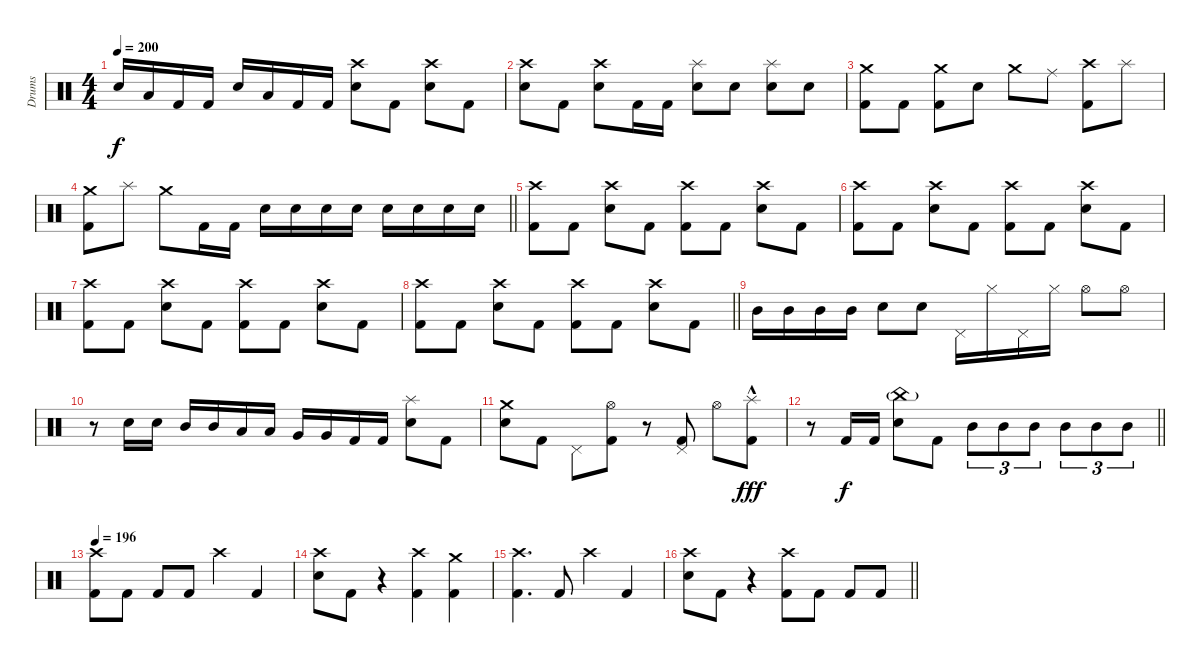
\track ("Drums" "Drums") {instrument percussion}
\staff {score}
\articulation defaults
\ts (4 4)
\tempo 200
\clef neutral
\ks c "Electric Snare (hit)".16{dy f} "Low Tom (hit)".16 "Kick (hit) 2".16 "Kick (hit) 2".16 "Electric Snare (hit)".16 "Low Tom (hit)".16 "Kick (hit) 2".16 "Kick (hit) 2".16
("Crash high (hit)" "Electric Snare (hit)").8 "Kick (hit) 2".8 ("Crash high (hit)" "Electric Snare (hit)").8 "Kick (hit) 2".8 |
("Crash high (hit)" "Electric Snare (hit)").8 "Kick (hit) 2".8 ("Crash high (hit)" "Electric Snare (hit)").8 "Kick (hit) 2".16 "Kick (hit) 2".16 ("Splash (hit)" "Electric Snare (hit)").8 "Electric Snare (hit)".8 ("Splash (hit)" "Electric Snare (hit)").8 "Electric Snare (hit)".8 |
("Crash medium (hit)" "Kick (hit) 2").8 "Kick (hit) 2".8 ("Crash medium (hit)" "Kick (hit) 2").8 "Electric Snare (hit)".8 "Crash medium (hit)".8 "Ride (middle)".8 ("Crash high (hit)" "Kick (hit) 2").8 "Splash (hit)".8 |
\barLineRight lightlight
("Crash medium (hit)" "Kick (hit) 2").8 "Splash (hit)".8 "Crash medium (hit)".8 "Kick (hit) 2".16 "Kick (hit) 2".16 "Electric Snare (hit)".16 "Electric Snare (hit)".16 "Electric Snare (hit)".16 "Electric Snare (hit)".16 "Electric Snare (hit)".16 "Electric Snare (hit)".16 "Electric Snare (hit)".16 "Electric Snare (hit)".16 |
("Crash high (hit)" "Kick (hit) 2").8 "Kick (hit) 2".8 ("Crash high (hit)" "Electric Snare (hit)").8 "Kick (hit) 2".8 ("Crash high (hit)" "Kick (hit) 2").8 "Kick (hit) 2".8 ("Crash high (hit)" "Electric Snare (hit)").8 "Kick (hit) 2".8 |
("Crash high (hit)" "Kick (hit) 2").8 "Kick (hit) 2".8 ("Crash high (hit)" "Electric Snare (hit)").8 "Kick (hit) 2".8 ("Crash high (hit)" "Kick (hit) 2").8 "Kick (hit) 2".8 ("Crash high (hit)" "Electric Snare (hit)").8 "Kick (hit) 2".8 |
("Crash high (hit)" "Kick (hit) 2").8 "Kick (hit) 2".8 ("Crash high (hit)" "Electric Snare (hit)").8 "Kick (hit) 2".8 ("Crash high (hit)" "Kick (hit) 2").8 "Kick (hit) 2".8 ("Crash high (hit)" "Electric Snare (hit)").8 "Kick (hit) 2".8 |
\barLineRight lightlight
("Crash high (hit)" "Kick (hit) 2").8 "Kick (hit) 2".8 ("Crash high (hit)" "Electric Snare (hit)").8 "Kick (hit) 2".8 ("Crash high (hit)" "Kick (hit) 2").8 "Kick (hit) 2".8 ("Crash high (hit)" "Electric Snare (hit)").8 "Kick (hit) 2".8 |
"Mid Tom (hit)".16 "Mid Tom (hit)".16 "Mid Tom (hit)".16 "Mid Tom (hit)".16 "Electric Snare (hit)".8 "Electric Snare (hit)".8 "Pedal Hi-Hat (hit)".16 "Hi-Hat (closed)".16 "Pedal Hi-Hat (hit)".16 "Hi-Hat (closed)".16 "Hi-Hat (open)".8 "Hi-Hat (open)".8 |
r.8 "Electric Snare (hit)".16 "Electric Snare (hit)".16 "Mid Tom (hit)".16 "Mid Tom (hit)".16 "Low Tom (hit)".16 "Low Tom (hit)".16 "Very Low Tom (hit)".16 "Very Low Tom (hit)".16 "Kick (hit) 2".16 "Kick (hit) 2".16 ("Splash (hit)" "Electric Snare (hit)").8 "Kick (hit) 2".8 |
("Crash medium (hit)" "Electric Snare (hit)").8 "Kick (hit) 2".8 "Pedal Hi-Hat (hit)".8 ("Hi-Hat (open)" "Kick (hit) 2").8 r.8 ("Pedal Hi-Hat (hit)" "Kick (hit) 2").8 "Hi-Hat (open)".8 ("Splash (hit)"{hac} "Kick (hit) 2").8{dy fff} |
\barLineRight lightlight
r.8 "Kick (hit) 2".16{dy f} "Kick (hit) 2".16 ("China (hit)"{g} "Electric Snare (hit)").8 "Kick (hit) 2".8 "Mid Tom (hit)".8{tu (3 2)} "Mid Tom (hit)".8{tu (3 2)} "Mid Tom (hit)".8{tu (3 2)} "Mid Tom (hit)".8{tu (3 2)} "Mid Tom (hit)".8{tu (3 2)} "Mid Tom (hit)".8{tu (3 2)} |
\tempo 196
("Crash high (hit)" "Kick (hit) 2").8 "Kick (hit) 2".8 "Kick (hit) 2".8 "Kick (hit) 2".8 "Crash high (hit)".4 "Kick (hit) 2".4 |
("Crash high (hit)" "Electric Snare (hit)").8 "Kick (hit) 2".8 r.4 ("Crash high (hit)" "Kick (hit) 2").4 ("Crash medium (hit)" "Kick (hit) 2").4 |
("Crash high (hit)" "Kick (hit) 2").4{d} "Kick (hit) 2".8 "Crash high (hit)".4 "Kick (hit) 2".4 |
\barLineRight lightlight
("Crash high (hit)" "Electric Snare (hit)").8 "Kick (hit) 2".8 r.4 ("Crash high (hit)" "Kick (hit) 2").8 "Kick (hit) 2".8 "Kick (hit) 2".8 "Kick (hit) 2".8
